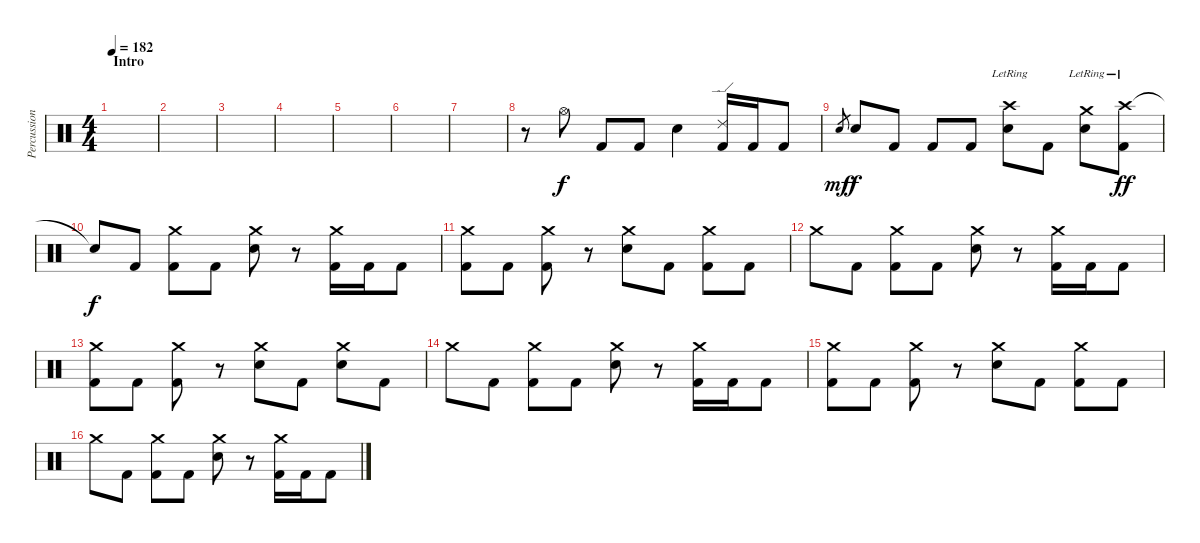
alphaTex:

\track ("Percussions" "Percussion") {instrument percussion}
\staff {score}
\articulation defaults
\ts (4 4)
\section ("" "Intro")
\tempo 182
\clef neutral
\ks c
|
|
|
|
|
|
|
r.8 "Hi-Hat (open)".8 "Kick (hit) 2".8 "Kick (hit) 2".8 "Electric Snare (hit)".4 ("Ride (edge) 2" "Kick (hit) 2").16 "Kick (hit) 2".16 "Kick (hit) 2".8 |
"Electric Snare (hit)".8{gr dy mf} "Electric Snare (hit)".8{dy f} "Kick (hit) 2".8 "Kick (hit) 2".8 "Kick (hit) 2".8 ("Crash high (hit)"{lr} "Electric Snare (hit)").8 "Kick (hit) 2".8 ("Crash medium (hit)"{lr} "Electric Snare (hit)").8 ("Crash high (hit)"{lr} "Kick (hit) 2").8{dy ff} |
"Snare (hit)"{t}.8{dy f} "Kick (hit) 2".8 ("Crash medium (hit)" "Kick (hit) 2").8 "Kick (hit) 2".8 ("Crash medium (hit)" "Electric Snare (hit)").8 r.8 ("Crash medium (hit)" "Kick (hit) 2").16 "Kick (hit) 2".16 "Kick (hit) 2".8 |
("Crash medium (hit)" "Kick (hit) 2").8 "Kick (hit) 2".8 ("Crash medium (hit)" "Kick (hit) 2").8 r.8 ("Crash medium (hit)" "Electric Snare (hit)").8 "Kick (hit) 2".8 ("Crash medium (hit)" "Kick (hit) 2").8 "Kick (hit) 2".8 |
"Crash medium (hit)".8 "Kick (hit) 2".8 ("Crash medium (hit)" "Kick (hit) 2").8 "Kick (hit) 2".8 ("Crash medium (hit)" "Electric Snare (hit)").8 r.8 ("Crash medium (hit)" "Kick (hit) 2").16 "Kick (hit) 2".16 "Kick (hit) 2".8 |
("Crash medium (hit)" "Kick (hit) 2").8 "Kick (hit) 2".8 ("Crash medium (hit)" "Kick (hit) 2").8 r.8 ("Crash medium (hit)" "Electric Snare (hit)").8 "Kick (hit) 2".8 ("Crash medium (hit)" "Electric Snare (hit)").8 "Kick (hit) 2".8 |
"Crash medium (hit)".8 "Kick (hit) 2".8 ("Crash medium (hit)" "Kick (hit) 2").8 "Kick (hit) 2".8 ("Crash medium (hit)" "Electric Snare (hit)").8 r.8 ("Crash medium (hit)" "Kick (hit) 2").16 "Kick (hit) 2".16 "Kick (hit) 2".8 |
("Crash medium (hit)" "Kick (hit) 2").8 "Kick (hit) 2".8 ("Crash medium (hit)" "Kick (hit) 2").8 r.8 ("Crash medium (hit)" "Electric Snare (hit)").8 "Kick (hit) 2".8 ("Crash medium (hit)" "Kick (hit) 2").8 "Kick (hit) 2".8 |
"Crash medium (hit)".8 "Kick (hit) 2".8 ("Crash medium (hit)" "Kick (hit) 2").8 "Kick (hit) 2".8 ("Crash medium (hit)" "Electric Snare (hit)").8 r.8 ("Crash medium (hit)" "Kick (hit) 2").16 "Kick (hit) 2".16 "Kick (hit) 2".8
